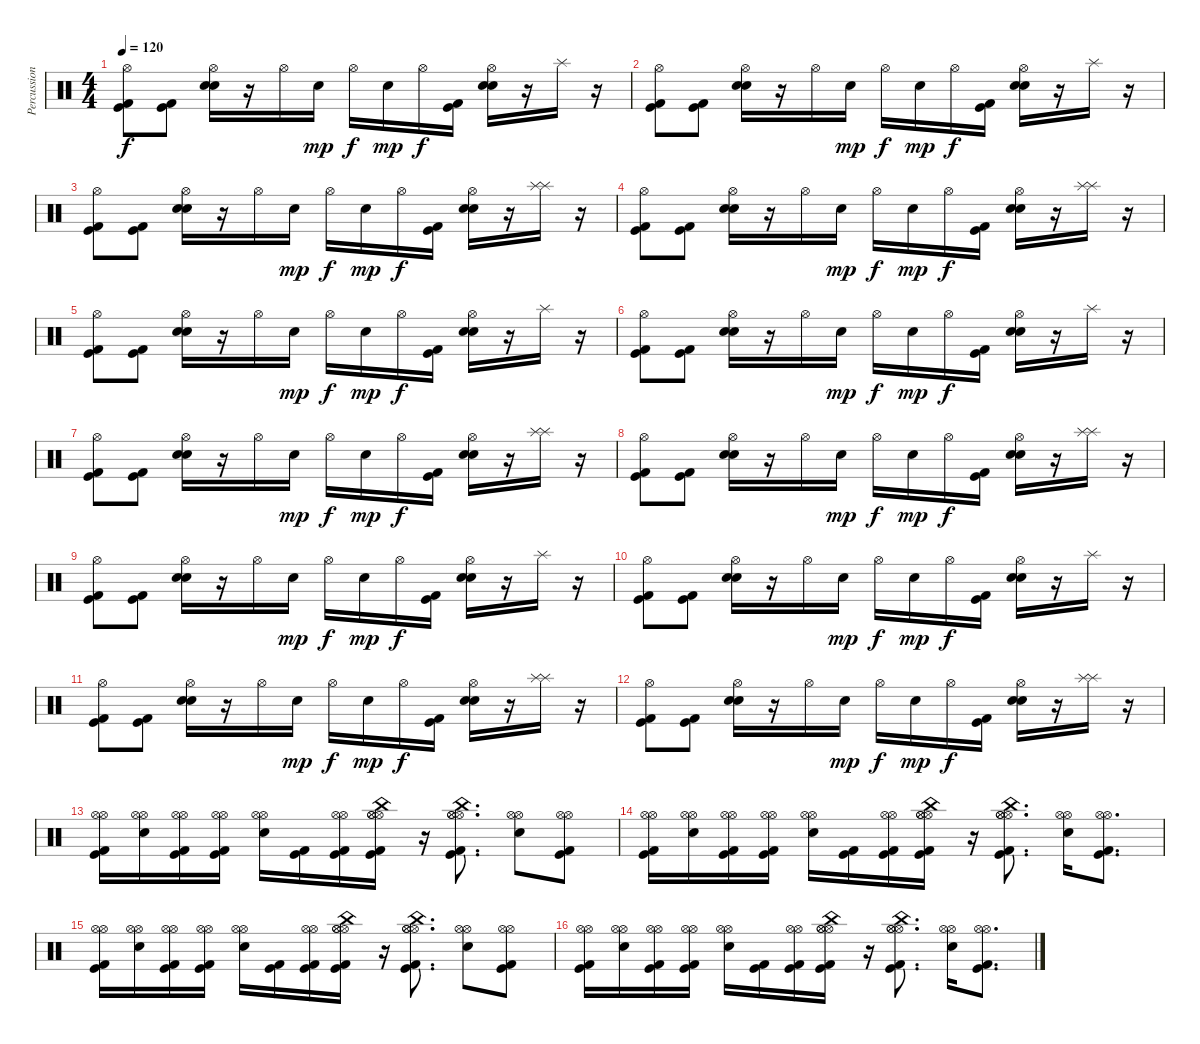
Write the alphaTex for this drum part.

\track ("Percussions" "Percussion") {instrument percussion}
\staff {score}
\articulation defaults
\ts (4 4)
\tempo 120
\clef neutral
\ks c
("Hi-Hat (open)" "Kick (hit) 2" "Kick (hit)").8{dy f} ("Kick (hit) 2" "Kick (hit)").8 ("Hi-Hat (open)" "Electric Snare (hit)" "Electric Snare (hit)").16 r.16 "Hi-Hat (open)".16 "Electric Snare (hit)".16{dy mp} "Hi-Hat (open)".16{dy f} "Electric Snare (hit)".16{dy mp} "Hi-Hat (open)".16{dy f} ("Kick (hit)" "Kick (hit) 2").16 ("Hi-Hat (open)" "Electric Snare (hit)" "Electric Snare (hit)").16 r.16 "Splash (hit)".16 r.16 |
("Hi-Hat (open)" "Kick (hit) 2" "Kick (hit)").8 ("Kick (hit) 2" "Kick (hit)").8 ("Hi-Hat (open)" "Electric Snare (hit)" "Electric Snare (hit)").16 r.16 "Hi-Hat (open)".16 "Electric Snare (hit)".16{dy mp} "Hi-Hat (open)".16{dy f} "Electric Snare (hit)".16{dy mp} "Hi-Hat (open)".16{dy f} ("Kick (hit)" "Kick (hit) 2").16 ("Hi-Hat (open)" "Electric Snare (hit)" "Electric Snare (hit)").16 r.16 "Splash (hit)".16 r.16 |
("Hi-Hat (open)" "Kick (hit) 2" "Kick (hit)").8 ("Kick (hit) 2" "Kick (hit)").8 ("Hi-Hat (open)" "Electric Snare (hit)" "Electric Snare (hit)").16 r.16 "Hi-Hat (open)".16 "Electric Snare (hit)".16{dy mp} "Hi-Hat (open)".16{dy f} "Electric Snare (hit)".16{dy mp} "Hi-Hat (open)".16{dy f} ("Kick (hit)" "Kick (hit) 2").16 ("Hi-Hat (open)" "Electric Snare (hit)" "Electric Snare (hit)").16 r.16 ("Splash (hit)" "Splash (hit)").16 r.16 |
("Hi-Hat (open)" "Kick (hit) 2" "Kick (hit)").8 ("Kick (hit) 2" "Kick (hit)").8 ("Hi-Hat (open)" "Electric Snare (hit)" "Electric Snare (hit)").16 r.16 "Hi-Hat (open)".16 "Electric Snare (hit)".16{dy mp} "Hi-Hat (open)".16{dy f} "Electric Snare (hit)".16{dy mp} "Hi-Hat (open)".16{dy f} ("Kick (hit)" "Kick (hit) 2").16 ("Hi-Hat (open)" "Electric Snare (hit)" "Electric Snare (hit)").16 r.16 ("Splash (hit)" "Splash (hit)").16 r.16 |
("Hi-Hat (open)" "Kick (hit) 2" "Kick (hit)").8 ("Kick (hit) 2" "Kick (hit)").8 ("Hi-Hat (open)" "Electric Snare (hit)" "Electric Snare (hit)").16 r.16 "Hi-Hat (open)".16 "Electric Snare (hit)".16{dy mp} "Hi-Hat (open)".16{dy f} "Electric Snare (hit)".16{dy mp} "Hi-Hat (open)".16{dy f} ("Kick (hit)" "Kick (hit) 2").16 ("Hi-Hat (open)" "Electric Snare (hit)" "Electric Snare (hit)").16 r.16 "Splash (hit)".16 r.16 |
("Hi-Hat (open)" "Kick (hit) 2" "Kick (hit)").8 ("Kick (hit) 2" "Kick (hit)").8 ("Hi-Hat (open)" "Electric Snare (hit)" "Electric Snare (hit)").16 r.16 "Hi-Hat (open)".16 "Electric Snare (hit)".16{dy mp} "Hi-Hat (open)".16{dy f} "Electric Snare (hit)".16{dy mp} "Hi-Hat (open)".16{dy f} ("Kick (hit)" "Kick (hit) 2").16 ("Hi-Hat (open)" "Electric Snare (hit)" "Electric Snare (hit)").16 r.16 "Splash (hit)".16 r.16 |
("Hi-Hat (open)" "Kick (hit) 2" "Kick (hit)").8 ("Kick (hit) 2" "Kick (hit)").8 ("Hi-Hat (open)" "Electric Snare (hit)" "Electric Snare (hit)").16 r.16 "Hi-Hat (open)".16 "Electric Snare (hit)".16{dy mp} "Hi-Hat (open)".16{dy f} "Electric Snare (hit)".16{dy mp} "Hi-Hat (open)".16{dy f} ("Kick (hit)" "Kick (hit) 2").16 ("Hi-Hat (open)" "Electric Snare (hit)" "Electric Snare (hit)").16 r.16 ("Splash (hit)" "Splash (hit)").16 r.16 |
("Hi-Hat (open)" "Kick (hit) 2" "Kick (hit)").8 ("Kick (hit) 2" "Kick (hit)").8 ("Hi-Hat (open)" "Electric Snare (hit)" "Electric Snare (hit)").16 r.16 "Hi-Hat (open)".16 "Electric Snare (hit)".16{dy mp} "Hi-Hat (open)".16{dy f} "Electric Snare (hit)".16{dy mp} "Hi-Hat (open)".16{dy f} ("Kick (hit)" "Kick (hit) 2").16 ("Hi-Hat (open)" "Electric Snare (hit)" "Electric Snare (hit)").16 r.16 ("Splash (hit)" "Splash (hit)").16 r.16 |
("Hi-Hat (open)" "Kick (hit) 2" "Kick (hit)").8 ("Kick (hit) 2" "Kick (hit)").8 ("Hi-Hat (open)" "Electric Snare (hit)" "Electric Snare (hit)").16 r.16 "Hi-Hat (open)".16 "Electric Snare (hit)".16{dy mp} "Hi-Hat (open)".16{dy f} "Electric Snare (hit)".16{dy mp} "Hi-Hat (open)".16{dy f} ("Kick (hit)" "Kick (hit) 2").16 ("Hi-Hat (open)" "Electric Snare (hit)" "Electric Snare (hit)").16 r.16 "Splash (hit)".16 r.16 |
("Hi-Hat (open)" "Kick (hit) 2" "Kick (hit)").8 ("Kick (hit) 2" "Kick (hit)").8 ("Hi-Hat (open)" "Electric Snare (hit)" "Electric Snare (hit)").16 r.16 "Hi-Hat (open)".16 "Electric Snare (hit)".16{dy mp} "Hi-Hat (open)".16{dy f} "Electric Snare (hit)".16{dy mp} "Hi-Hat (open)".16{dy f} ("Kick (hit)" "Kick (hit) 2").16 ("Hi-Hat (open)" "Electric Snare (hit)" "Electric Snare (hit)").16 r.16 "Splash (hit)".16 r.16 |
("Hi-Hat (open)" "Kick (hit) 2" "Kick (hit)").8 ("Kick (hit) 2" "Kick (hit)").8 ("Hi-Hat (open)" "Electric Snare (hit)" "Electric Snare (hit)").16 r.16 "Hi-Hat (open)".16 "Electric Snare (hit)".16{dy mp} "Hi-Hat (open)".16{dy f} "Electric Snare (hit)".16{dy mp} "Hi-Hat (open)".16{dy f} ("Kick (hit)" "Kick (hit) 2").16 ("Hi-Hat (open)" "Electric Snare (hit)" "Electric Snare (hit)").16 r.16 ("Splash (hit)" "Splash (hit)").16 r.16 |
("Hi-Hat (open)" "Kick (hit) 2" "Kick (hit)").8 ("Kick (hit) 2" "Kick (hit)").8 ("Hi-Hat (open)" "Electric Snare (hit)" "Electric Snare (hit)").16 r.16 "Hi-Hat (open)".16 "Electric Snare (hit)".16{dy mp} "Hi-Hat (open)".16{dy f} "Electric Snare (hit)".16{dy mp} "Hi-Hat (open)".16{dy f} ("Kick (hit)" "Kick (hit) 2").16 ("Hi-Hat (open)" "Electric Snare (hit)" "Electric Snare (hit)").16 r.16 ("Splash (hit)" "Splash (hit)").16 r.16 |
("Hi-Hat (open)" "Hi-Hat (open)" "Kick (hit)" "Kick (hit) 2").16 ("Hi-Hat (open)" "Hi-Hat (open)" "Electric Snare (hit)").16 ("Hi-Hat (open)" "Hi-Hat (open)" "Kick (hit)" "Kick (hit) 2").16 ("Hi-Hat (open)" "Hi-Hat (open)" "Kick (hit) 2" "Kick (hit)").16 ("Hi-Hat (open)" "Hi-Hat (open)" "Electric Snare (hit)").16 ("Kick (hit) 2" "Kick (hit)").16 ("Hi-Hat (open)" "Hi-Hat (open)" "Kick (hit)" "Kick (hit) 2").16 ("China (hit)" "Hi-Hat (open)" "Hi-Hat (open)" "Hi-Hat (open)" "Kick (hit)" "Kick (hit) 2").16 r.16 ("China (hit)" "Hi-Hat (open)" "Hi-Hat (open)" "Hi-Hat (open)" "Kick (hit) 2" "Kick (hit)").8{d} ("Hi-Hat (open)" "Hi-Hat (open)" "Electric Snare (hit)").8 ("Hi-Hat (open)" "Hi-Hat (open)" "Kick (hit)" "Kick (hit) 2").8 |
("Hi-Hat (open)" "Hi-Hat (open)" "Kick (hit)" "Kick (hit) 2").16 ("Hi-Hat (open)" "Hi-Hat (open)" "Electric Snare (hit)").16 ("Hi-Hat (open)" "Hi-Hat (open)" "Kick (hit)" "Kick (hit) 2").16 ("Hi-Hat (open)" "Hi-Hat (open)" "Kick (hit) 2" "Kick (hit)").16 ("Hi-Hat (open)" "Hi-Hat (open)" "Electric Snare (hit)").16 ("Kick (hit) 2" "Kick (hit)").16 ("Hi-Hat (open)" "Hi-Hat (open)" "Kick (hit)" "Kick (hit) 2").16 ("China (hit)" "Hi-Hat (open)" "Hi-Hat (open)" "Hi-Hat (open)" "Kick (hit)" "Kick (hit) 2").16 r.16 ("China (hit)" "Hi-Hat (open)" "Hi-Hat (open)" "Hi-Hat (open)" "Kick (hit) 2" "Kick (hit)").8{d} ("Hi-Hat (open)" "Hi-Hat (open)" "Electric Snare (hit)").16 ("Hi-Hat (open)" "Hi-Hat (open)" "Kick (hit)" "Kick (hit) 2").8{d} |
("Hi-Hat (open)" "Hi-Hat (open)" "Kick (hit)" "Kick (hit) 2").16 ("Hi-Hat (open)" "Hi-Hat (open)" "Electric Snare (hit)").16 ("Hi-Hat (open)" "Hi-Hat (open)" "Kick (hit)" "Kick (hit) 2").16 ("Hi-Hat (open)" "Hi-Hat (open)" "Kick (hit) 2" "Kick (hit)").16 ("Hi-Hat (open)" "Hi-Hat (open)" "Electric Snare (hit)").16 ("Kick (hit) 2" "Kick (hit)").16 ("Hi-Hat (open)" "Hi-Hat (open)" "Kick (hit)" "Kick (hit) 2").16 ("China (hit)" "Hi-Hat (open)" "Hi-Hat (open)" "Hi-Hat (open)" "Kick (hit)" "Kick (hit) 2").16 r.16 ("China (hit)" "Hi-Hat (open)" "Hi-Hat (open)" "Hi-Hat (open)" "Kick (hit) 2" "Kick (hit)").8{d} ("Hi-Hat (open)" "Hi-Hat (open)" "Electric Snare (hit)").8 ("Hi-Hat (open)" "Hi-Hat (open)" "Kick (hit)" "Kick (hit) 2").8 |
("Hi-Hat (open)" "Hi-Hat (open)" "Kick (hit)" "Kick (hit) 2").16 ("Hi-Hat (open)" "Hi-Hat (open)" "Electric Snare (hit)").16 ("Hi-Hat (open)" "Hi-Hat (open)" "Kick (hit)" "Kick (hit) 2").16 ("Hi-Hat (open)" "Hi-Hat (open)" "Kick (hit) 2" "Kick (hit)").16 ("Hi-Hat (open)" "Hi-Hat (open)" "Electric Snare (hit)").16 ("Kick (hit) 2" "Kick (hit)").16 ("Hi-Hat (open)" "Hi-Hat (open)" "Kick (hit)" "Kick (hit) 2").16 ("China (hit)" "Hi-Hat (open)" "Hi-Hat (open)" "Hi-Hat (open)" "Kick (hit)" "Kick (hit) 2").16 r.16 ("China (hit)" "Hi-Hat (open)" "Hi-Hat (open)" "Hi-Hat (open)" "Kick (hit) 2" "Kick (hit)").8{d} ("Hi-Hat (open)" "Hi-Hat (open)" "Electric Snare (hit)").16 ("Hi-Hat (open)" "Hi-Hat (open)" "Kick (hit)" "Kick (hit) 2").8{d}
